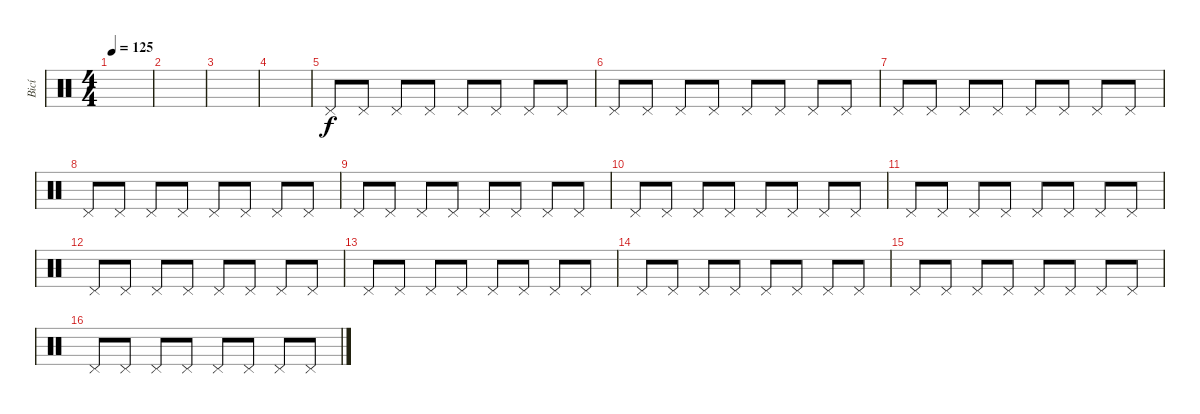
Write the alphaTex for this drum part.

\track ("Bicí" "Bicí") {instrument percussion}
\staff {score}
\articulation defaults
\ts (4 4)
\tempo 125
\clef neutral
\ks c
|
|
|
|
"Pedal Hi-Hat (hit)".8 "Pedal Hi-Hat (hit)".8 "Pedal Hi-Hat (hit)".8 "Pedal Hi-Hat (hit)".8 "Pedal Hi-Hat (hit)".8 "Pedal Hi-Hat (hit)".8 "Pedal Hi-Hat (hit)".8 "Pedal Hi-Hat (hit)".8 |
"Pedal Hi-Hat (hit)".8 "Pedal Hi-Hat (hit)".8 "Pedal Hi-Hat (hit)".8 "Pedal Hi-Hat (hit)".8 "Pedal Hi-Hat (hit)".8 "Pedal Hi-Hat (hit)".8 "Pedal Hi-Hat (hit)".8 "Pedal Hi-Hat (hit)".8 |
"Pedal Hi-Hat (hit)".8 "Pedal Hi-Hat (hit)".8 "Pedal Hi-Hat (hit)".8 "Pedal Hi-Hat (hit)".8 "Pedal Hi-Hat (hit)".8 "Pedal Hi-Hat (hit)".8 "Pedal Hi-Hat (hit)".8 "Pedal Hi-Hat (hit)".8 |
"Pedal Hi-Hat (hit)".8 "Pedal Hi-Hat (hit)".8 "Pedal Hi-Hat (hit)".8 "Pedal Hi-Hat (hit)".8 "Pedal Hi-Hat (hit)".8 "Pedal Hi-Hat (hit)".8 "Pedal Hi-Hat (hit)".8 "Pedal Hi-Hat (hit)".8 |
"Pedal Hi-Hat (hit)".8 "Pedal Hi-Hat (hit)".8 "Pedal Hi-Hat (hit)".8 "Pedal Hi-Hat (hit)".8 "Pedal Hi-Hat (hit)".8 "Pedal Hi-Hat (hit)".8 "Pedal Hi-Hat (hit)".8 "Pedal Hi-Hat (hit)".8 |
"Pedal Hi-Hat (hit)".8 "Pedal Hi-Hat (hit)".8 "Pedal Hi-Hat (hit)".8 "Pedal Hi-Hat (hit)".8 "Pedal Hi-Hat (hit)".8 "Pedal Hi-Hat (hit)".8 "Pedal Hi-Hat (hit)".8 "Pedal Hi-Hat (hit)".8 |
"Pedal Hi-Hat (hit)".8 "Pedal Hi-Hat (hit)".8 "Pedal Hi-Hat (hit)".8 "Pedal Hi-Hat (hit)".8 "Pedal Hi-Hat (hit)".8 "Pedal Hi-Hat (hit)".8 "Pedal Hi-Hat (hit)".8 "Pedal Hi-Hat (hit)".8 |
"Pedal Hi-Hat (hit)".8 "Pedal Hi-Hat (hit)".8 "Pedal Hi-Hat (hit)".8 "Pedal Hi-Hat (hit)".8 "Pedal Hi-Hat (hit)".8 "Pedal Hi-Hat (hit)".8 "Pedal Hi-Hat (hit)".8 "Pedal Hi-Hat (hit)".8 |
"Pedal Hi-Hat (hit)".8 "Pedal Hi-Hat (hit)".8 "Pedal Hi-Hat (hit)".8 "Pedal Hi-Hat (hit)".8 "Pedal Hi-Hat (hit)".8 "Pedal Hi-Hat (hit)".8 "Pedal Hi-Hat (hit)".8 "Pedal Hi-Hat (hit)".8 |
"Pedal Hi-Hat (hit)".8 "Pedal Hi-Hat (hit)".8 "Pedal Hi-Hat (hit)".8 "Pedal Hi-Hat (hit)".8 "Pedal Hi-Hat (hit)".8 "Pedal Hi-Hat (hit)".8 "Pedal Hi-Hat (hit)".8 "Pedal Hi-Hat (hit)".8 |
"Pedal Hi-Hat (hit)".8 "Pedal Hi-Hat (hit)".8 "Pedal Hi-Hat (hit)".8 "Pedal Hi-Hat (hit)".8 "Pedal Hi-Hat (hit)".8 "Pedal Hi-Hat (hit)".8 "Pedal Hi-Hat (hit)".8 "Pedal Hi-Hat (hit)".8 |
"Pedal Hi-Hat (hit)".8 "Pedal Hi-Hat (hit)".8 "Pedal Hi-Hat (hit)".8 "Pedal Hi-Hat (hit)".8 "Pedal Hi-Hat (hit)".8 "Pedal Hi-Hat (hit)".8 "Pedal Hi-Hat (hit)".8 "Pedal Hi-Hat (hit)".8
